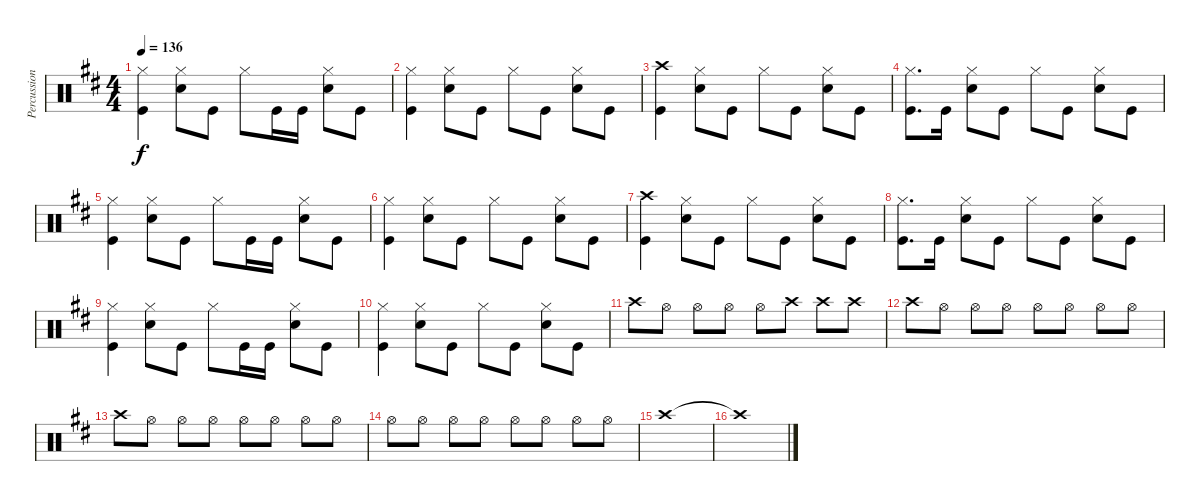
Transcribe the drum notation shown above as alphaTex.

\track ("Percussion" "Percussion") {instrument percussion}
\staff {score}
\articulation defaults
\ts (4 4)
\tempo 136
\clef neutral
\ks d
("Kick (hit)" "Hi-Hat (closed)").4{dy f} ("Snare (hit) 2" "Hi-Hat (closed)").8 "Kick (hit)".8 "Hi-Hat (closed)".8 "Kick (hit)".16 "Kick (hit)".16 ("Snare (hit) 2" "Hi-Hat (closed)").8 "Kick (hit)".8 |
("Hi-Hat (closed)" "Kick (hit)").4 ("Snare (hit) 2" "Hi-Hat (closed)").8 "Kick (hit)".8 "Hi-Hat (closed)".8 "Kick (hit)".8 ("Snare (hit) 2" "Hi-Hat (closed)").8 "Kick (hit)".8 |
("Crash high (hit)" "Kick (hit)").4 ("Snare (hit) 2" "Hi-Hat (closed)").8 "Kick (hit)".8 "Hi-Hat (closed)".8 "Kick (hit)".8 ("Snare (hit) 2" "Hi-Hat (closed)").8 "Kick (hit)".8 |
("Hi-Hat (closed)" "Kick (hit)").8{d} "Kick (hit)".16 ("Snare (hit) 2" "Hi-Hat (closed)").8 "Kick (hit)".8 "Hi-Hat (closed)".8 "Kick (hit)".8 ("Snare (hit) 2" "Hi-Hat (closed)").8 "Kick (hit)".8 |
("Kick (hit)" "Hi-Hat (closed)").4 ("Snare (hit) 2" "Hi-Hat (closed)").8 "Kick (hit)".8 "Hi-Hat (closed)".8 "Kick (hit)".16 "Kick (hit)".16 ("Snare (hit) 2" "Hi-Hat (closed)").8 "Kick (hit)".8 |
("Hi-Hat (closed)" "Kick (hit)").4 ("Snare (hit) 2" "Hi-Hat (closed)").8 "Kick (hit)".8 "Hi-Hat (closed)".8 "Kick (hit)".8 ("Snare (hit) 2" "Hi-Hat (closed)").8 "Kick (hit)".8 |
("Crash high (hit)" "Kick (hit)").4 ("Snare (hit) 2" "Hi-Hat (closed)").8 "Kick (hit)".8 "Hi-Hat (closed)".8 "Kick (hit)".8 ("Snare (hit) 2" "Hi-Hat (closed)").8 "Kick (hit)".8 |
("Hi-Hat (closed)" "Kick (hit)").8{d} "Kick (hit)".16 ("Snare (hit) 2" "Hi-Hat (closed)").8 "Kick (hit)".8 "Hi-Hat (closed)".8 "Kick (hit)".8 ("Snare (hit) 2" "Hi-Hat (closed)").8 "Kick (hit)".8 |
("Kick (hit)" "Hi-Hat (closed)").4 ("Snare (hit) 2" "Hi-Hat (closed)").8 "Kick (hit)".8 "Hi-Hat (closed)".8 "Kick (hit)".16 "Kick (hit)".16 ("Snare (hit) 2" "Hi-Hat (closed)").8 "Kick (hit)".8 |
("Hi-Hat (closed)" "Kick (hit)").4 ("Snare (hit) 2" "Hi-Hat (closed)").8 "Kick (hit)".8 "Hi-Hat (closed)".8 "Kick (hit)".8 ("Snare (hit) 2" "Hi-Hat (closed)").8 "Kick (hit)".8 |
"Crash high (hit)".8 "Hi-Hat (open)".8 "Hi-Hat (open)".8 "Hi-Hat (open)".8 "Hi-Hat (open)".8 "Crash high (hit)".8 "Crash high (hit)".8 "Crash high (hit)".8 |
"Crash high (hit)".8 "Hi-Hat (open)".8 "Hi-Hat (open)".8 "Hi-Hat (open)".8 "Hi-Hat (open)".8 "Hi-Hat (open)".8 "Hi-Hat (open)".8 "Hi-Hat (open)".8 |
"Crash high (hit)".8 "Hi-Hat (open)".8 "Hi-Hat (open)".8 "Hi-Hat (open)".8 "Hi-Hat (open)".8 "Hi-Hat (open)".8 "Hi-Hat (open)".8 "Hi-Hat (open)".8 |
"Hi-Hat (open)".8 "Hi-Hat (open)".8 "Hi-Hat (open)".8 "Hi-Hat (open)".8 "Hi-Hat (open)".8 "Hi-Hat (open)".8 "Hi-Hat (open)".8 "Hi-Hat (open)".8 |
"Crash high (hit)".1 |
"Crash high (hit)"{t}.1
